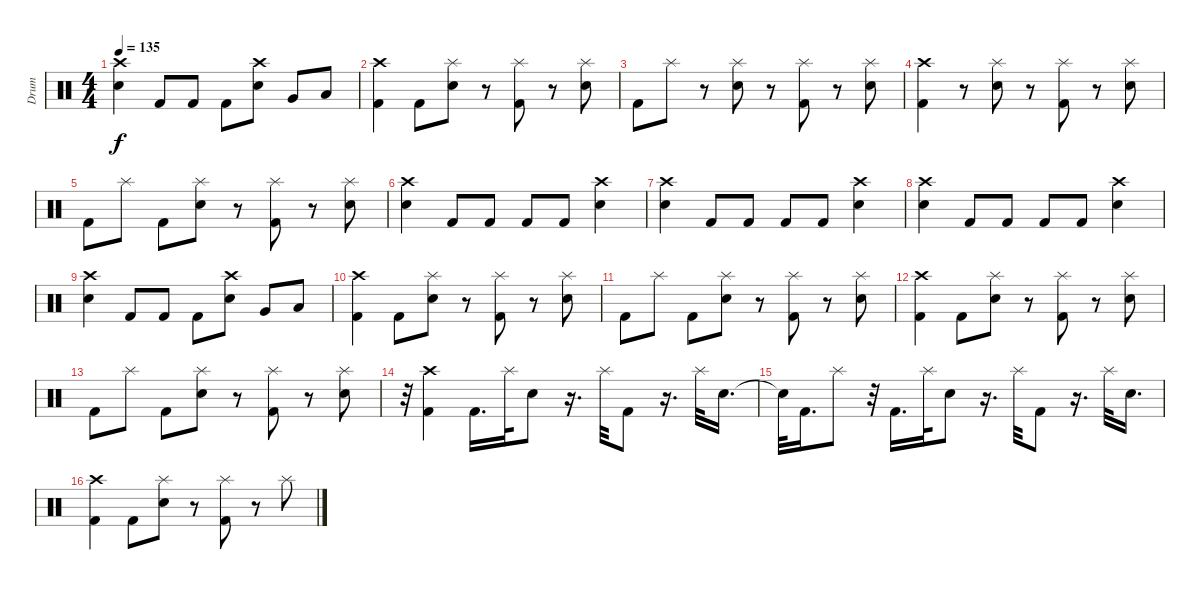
\track ("Drum" "Drum") {instrument percussion}
\staff {score}
\articulation defaults
\ts (4 4)
\tempo 135
\clef neutral
\ks c
("Crash high (hit)" "Electric Snare (hit)").4{dy f} "Kick (hit) 2".8 "Kick (hit) 2".8 "Kick (hit) 2".8 ("Crash high (hit)" "Electric Snare (hit)").8 "Very Low Tom (hit)".8 "Low Floor Tom (hit)".8 |
("Crash high (hit)" "Kick (hit) 2").4 "Kick (hit) 2".8 ("Splash (hit)" "Electric Snare (hit)").8 r.8 ("Splash (hit)" "Kick (hit) 2").8 r.8 ("Splash (hit)" "Electric Snare (hit)").8 |
"Kick (hit) 2".8 "Splash (hit)".8 r.8 ("Splash (hit)" "Electric Snare (hit)").8 r.8 ("Splash (hit)" "Kick (hit) 2").8 r.8 ("Splash (hit)" "Electric Snare (hit)").8 |
("Crash high (hit)" "Kick (hit) 2").4 r.8 ("Splash (hit)" "Electric Snare (hit)").8 r.8 ("Splash (hit)" "Kick (hit) 2").8 r.8 ("Splash (hit)" "Electric Snare (hit)").8 |
"Kick (hit) 2".8 "Splash (hit)".8 "Kick (hit) 2".8 ("Splash (hit)" "Electric Snare (hit)").8 r.8 ("Splash (hit)" "Kick (hit) 2").8 r.8 ("Splash (hit)" "Electric Snare (hit)").8 |
("Crash high (hit)" "Electric Snare (hit)").4 "Kick (hit) 2".8 "Kick (hit) 2".8 "Kick (hit) 2".8 "Kick (hit) 2".8 ("Crash high (hit)" "Electric Snare (hit)").4 |
("Crash high (hit)" "Electric Snare (hit)").4 "Kick (hit) 2".8 "Kick (hit) 2".8 "Kick (hit) 2".8 "Kick (hit) 2".8 ("Crash high (hit)" "Electric Snare (hit)").4 |
("Crash high (hit)" "Electric Snare (hit)").4 "Kick (hit) 2".8 "Kick (hit) 2".8 "Kick (hit) 2".8 "Kick (hit) 2".8 ("Crash high (hit)" "Electric Snare (hit)").4 |
("Crash high (hit)" "Electric Snare (hit)").4 "Kick (hit) 2".8 "Kick (hit) 2".8 "Kick (hit) 2".8 ("Crash high (hit)" "Electric Snare (hit)").8 "Very Low Tom (hit)".8 "Low Floor Tom (hit)".8 |
("Crash high (hit)" "Kick (hit) 2").4 "Kick (hit) 2".8 ("Splash (hit)" "Electric Snare (hit)").8 r.8 ("Splash (hit)" "Kick (hit) 2").8 r.8 ("Splash (hit)" "Electric Snare (hit)").8 |
"Kick (hit) 2".8 "Splash (hit)".8 "Kick (hit) 2".8 ("Splash (hit)" "Electric Snare (hit)").8 r.8 ("Splash (hit)" "Kick (hit) 2").8 r.8 ("Splash (hit)" "Electric Snare (hit)").8 |
("Crash high (hit)" "Kick (hit) 2").4 "Kick (hit) 2".8 ("Splash (hit)" "Electric Snare (hit)").8 r.8 ("Splash (hit)" "Kick (hit) 2").8 r.8 ("Splash (hit)" "Electric Snare (hit)").8 |
"Kick (hit) 2".8 "Splash (hit)".8 "Kick (hit) 2".8 ("Splash (hit)" "Electric Snare (hit)").8 r.8 ("Splash (hit)" "Kick (hit) 2").8 r.8 ("Splash (hit)" "Electric Snare (hit)").8 |
r.32 ("Crash high (hit)" "Kick (hit) 2").4 "Kick (hit) 2".16{d} "Splash (hit)".32 "Electric Snare (hit)".8 r.16{d} "Splash (hit)".32 "Kick (hit) 2".8 r.16{d} "Splash (hit)".32 "Electric Snare (hit)".16{d} |
"Snare (hit)"{t}.32 "Kick (hit) 2".16{d} "Splash (hit)".8 r.32 "Kick (hit) 2".16{d} "Splash (hit)".32 "Electric Snare (hit)".8 r.16{d} "Splash (hit)".32 "Kick (hit) 2".8 r.16{d} "Splash (hit)".32 "Electric Snare (hit)".16{d} |
("Crash high (hit)" "Kick (hit) 2").4 "Kick (hit) 2".8 ("Splash (hit)" "Electric Snare (hit)").8 r.8 ("Splash (hit)" "Kick (hit) 2").8 r.8 "Splash (hit)".8
